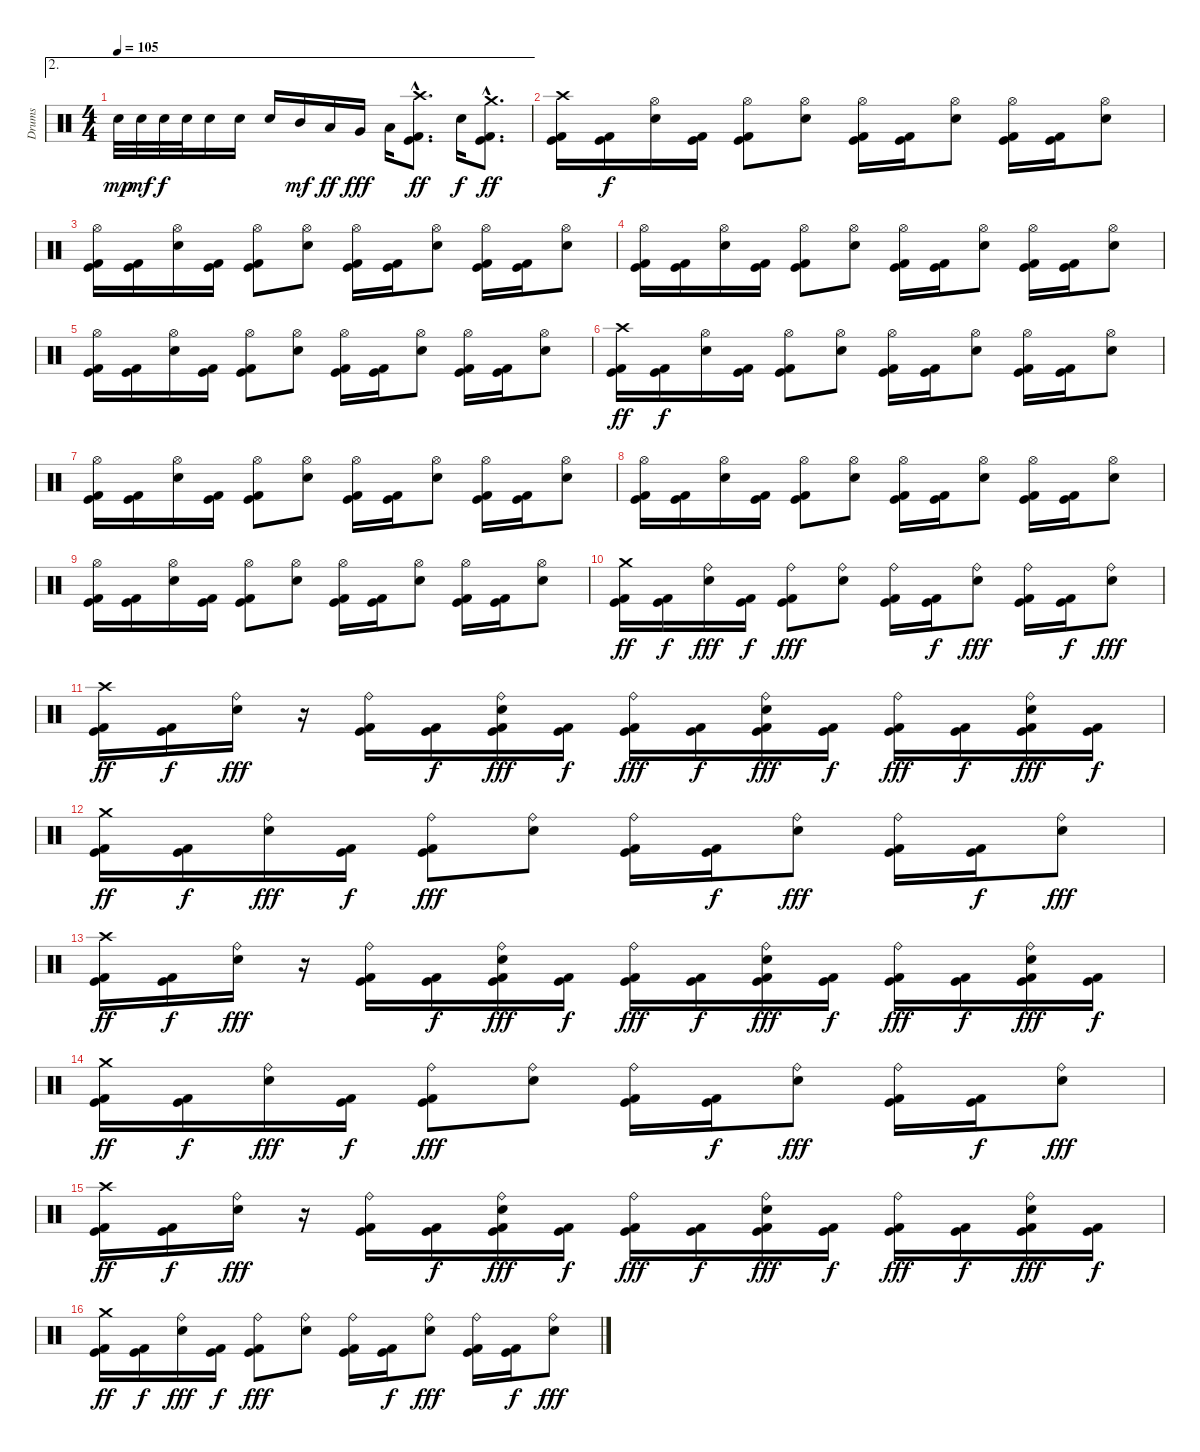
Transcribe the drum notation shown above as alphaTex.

\track ("Drums" "Drums") {instrument percussion}
\staff {score}
\articulation defaults
\ae 2
\ts (4 4)
\tempo 105
\clef neutral
\ks c "Snare (hit) 2".32{dy mp} "Snare (hit) 2".32{dy mf} "Snare (hit) 2".32{dy f} "Snare (hit) 2".32 "Snare (hit) 2".16 "Snare (hit) 2".16 "Snare (hit) 2".16 "Mid Tom (hit)".16{dy mf} "Low Tom (hit)".16{dy ff} "Very Low Tom (hit)".16{dy fff} "Low Floor Tom (hit)".16
("Crash high (hit)"{hac} "Kick (hit) 2"{hac} "Kick (hit)"{hac}).8{d dy ff} "Snare (hit) 2".16{dy f} ("Crash medium (hit)"{hac} "Kick (hit) 2"{hac} "Kick (hit)"{hac}).8{d dy ff} |
("Crash high (hit)" "Kick (hit) 2" "Kick (hit)").16 ("Kick (hit) 2" "Kick (hit)").16{dy f} ("Hi-Hat (open)" "Snare (hit) 2").16 ("Kick (hit) 2" "Kick (hit)").16 ("Hi-Hat (open)" "Kick (hit) 2" "Kick (hit)").8 ("Hi-Hat (open)" "Snare (hit) 2").8 ("Hi-Hat (open)" "Kick (hit) 2" "Kick (hit)").16 ("Kick (hit) 2" "Kick (hit)").16 ("Hi-Hat (open)" "Snare (hit) 2").8 ("Hi-Hat (open)" "Kick (hit) 2" "Kick (hit)").16 ("Kick (hit) 2" "Kick (hit)").16 ("Hi-Hat (open)" "Snare (hit) 2").8 |
("Hi-Hat (open)" "Kick (hit) 2" "Kick (hit)").16 ("Kick (hit) 2" "Kick (hit)").16 ("Hi-Hat (open)" "Snare (hit) 2").16 ("Kick (hit) 2" "Kick (hit)").16 ("Hi-Hat (open)" "Kick (hit) 2" "Kick (hit)").8 ("Hi-Hat (open)" "Snare (hit) 2").8 ("Hi-Hat (open)" "Kick (hit) 2" "Kick (hit)").16 ("Kick (hit) 2" "Kick (hit)").16 ("Hi-Hat (open)" "Snare (hit) 2").8 ("Hi-Hat (open)" "Kick (hit) 2" "Kick (hit)").16 ("Kick (hit) 2" "Kick (hit)").16 ("Hi-Hat (open)" "Snare (hit) 2").8 |
("Hi-Hat (open)" "Kick (hit) 2" "Kick (hit)").16 ("Kick (hit) 2" "Kick (hit)").16 ("Hi-Hat (open)" "Snare (hit) 2").16 ("Kick (hit) 2" "Kick (hit)").16 ("Hi-Hat (open)" "Kick (hit) 2" "Kick (hit)").8 ("Hi-Hat (open)" "Snare (hit) 2").8 ("Hi-Hat (open)" "Kick (hit) 2" "Kick (hit)").16 ("Kick (hit) 2" "Kick (hit)").16 ("Hi-Hat (open)" "Snare (hit) 2").8 ("Hi-Hat (open)" "Kick (hit) 2" "Kick (hit)").16 ("Kick (hit) 2" "Kick (hit)").16 ("Hi-Hat (open)" "Snare (hit) 2").8 |
("Hi-Hat (open)" "Kick (hit) 2" "Kick (hit)").16 ("Kick (hit) 2" "Kick (hit)").16 ("Hi-Hat (open)" "Snare (hit) 2").16 ("Kick (hit) 2" "Kick (hit)").16 ("Hi-Hat (open)" "Kick (hit) 2" "Kick (hit)").8 ("Hi-Hat (open)" "Snare (hit) 2").8 ("Hi-Hat (open)" "Kick (hit) 2" "Kick (hit)").16 ("Kick (hit) 2" "Kick (hit)").16 ("Hi-Hat (open)" "Snare (hit) 2").8 ("Hi-Hat (open)" "Kick (hit) 2" "Kick (hit)").16 ("Kick (hit) 2" "Kick (hit)").16 ("Hi-Hat (open)" "Snare (hit) 2").8 |
("Crash high (hit)" "Kick (hit) 2" "Kick (hit)").16{dy ff} ("Kick (hit) 2" "Kick (hit)").16{dy f} ("Hi-Hat (open)" "Snare (hit) 2").16 ("Kick (hit) 2" "Kick (hit)").16 ("Hi-Hat (open)" "Kick (hit) 2" "Kick (hit)").8 ("Hi-Hat (open)" "Snare (hit) 2").8 ("Hi-Hat (open)" "Kick (hit) 2" "Kick (hit)").16 ("Kick (hit) 2" "Kick (hit)").16 ("Hi-Hat (open)" "Snare (hit) 2").8 ("Hi-Hat (open)" "Kick (hit) 2" "Kick (hit)").16 ("Kick (hit) 2" "Kick (hit)").16 ("Hi-Hat (open)" "Snare (hit) 2").8 |
("Hi-Hat (open)" "Kick (hit) 2" "Kick (hit)").16 ("Kick (hit) 2" "Kick (hit)").16 ("Hi-Hat (open)" "Snare (hit) 2").16 ("Kick (hit) 2" "Kick (hit)").16 ("Hi-Hat (open)" "Kick (hit) 2" "Kick (hit)").8 ("Hi-Hat (open)" "Snare (hit) 2").8 ("Hi-Hat (open)" "Kick (hit) 2" "Kick (hit)").16 ("Kick (hit) 2" "Kick (hit)").16 ("Hi-Hat (open)" "Snare (hit) 2").8 ("Hi-Hat (open)" "Kick (hit) 2" "Kick (hit)").16 ("Kick (hit) 2" "Kick (hit)").16 ("Hi-Hat (open)" "Snare (hit) 2").8 |
("Hi-Hat (open)" "Kick (hit) 2" "Kick (hit)").16 ("Kick (hit) 2" "Kick (hit)").16 ("Hi-Hat (open)" "Snare (hit) 2").16 ("Kick (hit) 2" "Kick (hit)").16 ("Hi-Hat (open)" "Kick (hit) 2" "Kick (hit)").8 ("Hi-Hat (open)" "Snare (hit) 2").8 ("Hi-Hat (open)" "Kick (hit) 2" "Kick (hit)").16 ("Kick (hit) 2" "Kick (hit)").16 ("Hi-Hat (open)" "Snare (hit) 2").8 ("Hi-Hat (open)" "Kick (hit) 2" "Kick (hit)").16 ("Kick (hit) 2" "Kick (hit)").16 ("Hi-Hat (open)" "Snare (hit) 2").8 |
("Hi-Hat (open)" "Kick (hit) 2" "Kick (hit)").16 ("Kick (hit) 2" "Kick (hit)").16 ("Hi-Hat (open)" "Snare (hit) 2").16 ("Kick (hit) 2" "Kick (hit)").16 ("Hi-Hat (open)" "Kick (hit) 2" "Kick (hit)").8 ("Hi-Hat (open)" "Snare (hit) 2").8 ("Hi-Hat (open)" "Kick (hit) 2" "Kick (hit)").16 ("Kick (hit) 2" "Kick (hit)").16 ("Hi-Hat (open)" "Snare (hit) 2").8 ("Hi-Hat (open)" "Kick (hit) 2" "Kick (hit)").16 ("Kick (hit) 2" "Kick (hit)").16 ("Hi-Hat (open)" "Snare (hit) 2").8 |
("Crash medium (hit)" "Kick (hit) 2" "Kick (hit)").16{dy ff} ("Kick (hit) 2" "Kick (hit)").16{dy f} ("Ride (bell)" "Snare (hit) 2").16{dy fff} ("Kick (hit) 2" "Kick (hit)").16{dy f} ("Ride (bell)" "Kick (hit) 2" "Kick (hit)").8{dy fff} ("Ride (bell)" "Snare (hit) 2").8 ("Ride (bell)" "Kick (hit) 2" "Kick (hit)").16 ("Kick (hit) 2" "Kick (hit)").16{dy f} ("Ride (bell)" "Snare (hit) 2").8{dy fff} ("Ride (bell)" "Kick (hit) 2" "Kick (hit)").16 ("Kick (hit) 2" "Kick (hit)").16{dy f} ("Ride (bell)" "Snare (hit) 2").8{dy fff} |
("Crash high (hit)" "Kick (hit) 2" "Kick (hit)").16{dy ff} ("Kick (hit) 2" "Kick (hit)").16{dy f} ("Ride (bell)" "Snare (hit) 2").16{dy fff} r.16 ("Ride (bell)" "Kick (hit) 2" "Kick (hit)").16 ("Kick (hit) 2" "Kick (hit)").16{dy f} ("Ride (bell)" "Snare (hit) 2" "Kick (hit) 2" "Kick (hit)").16{dy fff} ("Kick (hit) 2" "Kick (hit)").16{dy f} ("Ride (bell)" "Kick (hit) 2" "Kick (hit)").16{dy fff} ("Kick (hit) 2" "Kick (hit)").16{dy f} ("Ride (bell)" "Snare (hit) 2" "Kick (hit) 2" "Kick (hit)").16{dy fff} ("Kick (hit) 2" "Kick (hit)").16{dy f} ("Ride (bell)" "Kick (hit) 2" "Kick (hit)").16{dy fff} ("Kick (hit) 2" "Kick (hit)").16{dy f} ("Ride (bell)" "Snare (hit) 2" "Kick (hit) 2" "Kick (hit)").16{dy fff} ("Kick (hit) 2" "Kick (hit)").16{dy f} |
("Crash medium (hit)" "Kick (hit) 2" "Kick (hit)").16{dy ff} ("Kick (hit) 2" "Kick (hit)").16{dy f} ("Ride (bell)" "Snare (hit) 2").16{dy fff} ("Kick (hit) 2" "Kick (hit)").16{dy f} ("Ride (bell)" "Kick (hit) 2" "Kick (hit)").8{dy fff} ("Ride (bell)" "Snare (hit) 2").8 ("Ride (bell)" "Kick (hit) 2" "Kick (hit)").16 ("Kick (hit) 2" "Kick (hit)").16{dy f} ("Ride (bell)" "Snare (hit) 2").8{dy fff} ("Ride (bell)" "Kick (hit) 2" "Kick (hit)").16 ("Kick (hit) 2" "Kick (hit)").16{dy f} ("Ride (bell)" "Snare (hit) 2").8{dy fff} |
("Crash high (hit)" "Kick (hit) 2" "Kick (hit)").16{dy ff} ("Kick (hit) 2" "Kick (hit)").16{dy f} ("Ride (bell)" "Snare (hit) 2").16{dy fff} r.16 ("Ride (bell)" "Kick (hit) 2" "Kick (hit)").16 ("Kick (hit) 2" "Kick (hit)").16{dy f} ("Ride (bell)" "Snare (hit) 2" "Kick (hit) 2" "Kick (hit)").16{dy fff} ("Kick (hit) 2" "Kick (hit)").16{dy f} ("Ride (bell)" "Kick (hit) 2" "Kick (hit)").16{dy fff} ("Kick (hit) 2" "Kick (hit)").16{dy f} ("Ride (bell)" "Snare (hit) 2" "Kick (hit) 2" "Kick (hit)").16{dy fff} ("Kick (hit) 2" "Kick (hit)").16{dy f} ("Ride (bell)" "Kick (hit) 2" "Kick (hit)").16{dy fff} ("Kick (hit) 2" "Kick (hit)").16{dy f} ("Ride (bell)" "Snare (hit) 2" "Kick (hit) 2" "Kick (hit)").16{dy fff} ("Kick (hit) 2" "Kick (hit)").16{dy f} |
("Crash medium (hit)" "Kick (hit) 2" "Kick (hit)").16{dy ff} ("Kick (hit) 2" "Kick (hit)").16{dy f} ("Ride (bell)" "Snare (hit) 2").16{dy fff} ("Kick (hit) 2" "Kick (hit)").16{dy f} ("Ride (bell)" "Kick (hit) 2" "Kick (hit)").8{dy fff} ("Ride (bell)" "Snare (hit) 2").8 ("Ride (bell)" "Kick (hit) 2" "Kick (hit)").16 ("Kick (hit) 2" "Kick (hit)").16{dy f} ("Ride (bell)" "Snare (hit) 2").8{dy fff} ("Ride (bell)" "Kick (hit) 2" "Kick (hit)").16 ("Kick (hit) 2" "Kick (hit)").16{dy f} ("Ride (bell)" "Snare (hit) 2").8{dy fff} |
("Crash high (hit)" "Kick (hit) 2" "Kick (hit)").16{dy ff} ("Kick (hit) 2" "Kick (hit)").16{dy f} ("Ride (bell)" "Snare (hit) 2").16{dy fff} r.16 ("Ride (bell)" "Kick (hit) 2" "Kick (hit)").16 ("Kick (hit) 2" "Kick (hit)").16{dy f} ("Ride (bell)" "Snare (hit) 2" "Kick (hit) 2" "Kick (hit)").16{dy fff} ("Kick (hit) 2" "Kick (hit)").16{dy f} ("Ride (bell)" "Kick (hit) 2" "Kick (hit)").16{dy fff} ("Kick (hit) 2" "Kick (hit)").16{dy f} ("Ride (bell)" "Snare (hit) 2" "Kick (hit) 2" "Kick (hit)").16{dy fff} ("Kick (hit) 2" "Kick (hit)").16{dy f} ("Ride (bell)" "Kick (hit) 2" "Kick (hit)").16{dy fff} ("Kick (hit) 2" "Kick (hit)").16{dy f} ("Ride (bell)" "Snare (hit) 2" "Kick (hit) 2" "Kick (hit)").16{dy fff} ("Kick (hit) 2" "Kick (hit)").16{dy f} |
("Crash medium (hit)" "Kick (hit) 2" "Kick (hit)").16{dy ff} ("Kick (hit) 2" "Kick (hit)").16{dy f} ("Ride (bell)" "Snare (hit) 2").16{dy fff} ("Kick (hit) 2" "Kick (hit)").16{dy f} ("Ride (bell)" "Kick (hit) 2" "Kick (hit)").8{dy fff} ("Ride (bell)" "Snare (hit) 2").8 ("Ride (bell)" "Kick (hit) 2" "Kick (hit)").16 ("Kick (hit) 2" "Kick (hit)").16{dy f} ("Ride (bell)" "Snare (hit) 2").8{dy fff} ("Ride (bell)" "Kick (hit) 2" "Kick (hit)").16 ("Kick (hit) 2" "Kick (hit)").16{dy f} ("Ride (bell)" "Snare (hit) 2").8{dy fff}
